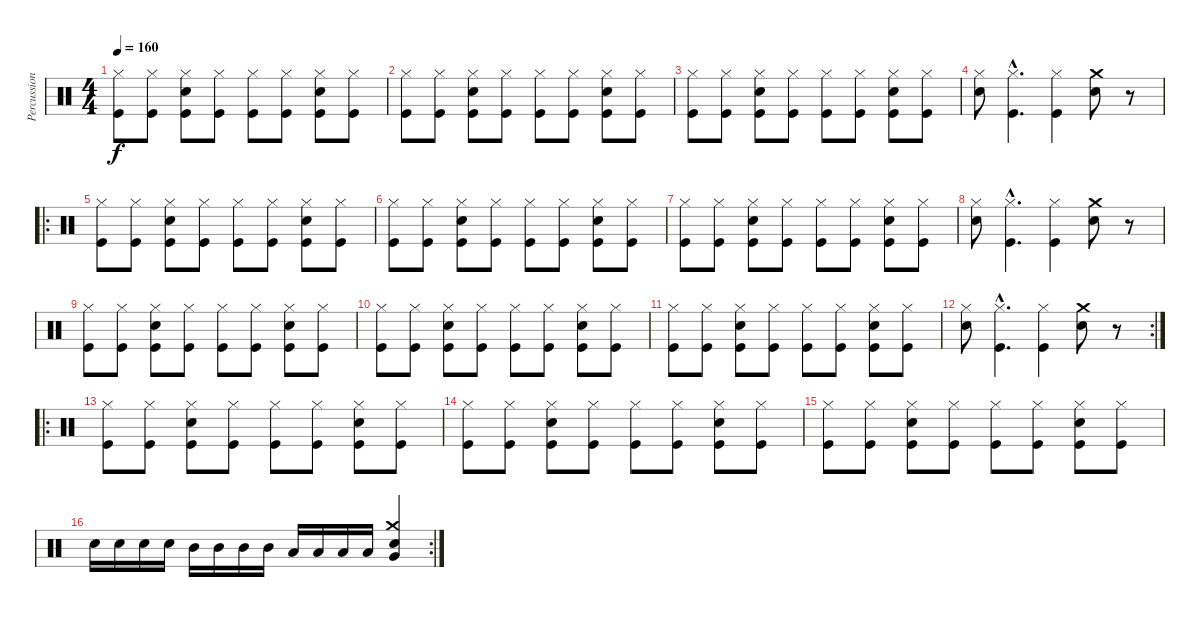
\track ("Percussion" "Percussion") {instrument percussion}
\staff {score}
\articulation defaults
\ts (4 4)
\tempo 160
\clef neutral
\ks c
("Hi-Hat (closed)" "Kick (hit)").8{dy f} ("Hi-Hat (closed)" "Kick (hit)").8 ("Hi-Hat (closed)" "Snare (hit) 2" "Kick (hit)").8 ("Hi-Hat (closed)" "Kick (hit)").8 ("Hi-Hat (closed)" "Kick (hit)").8 ("Hi-Hat (closed)" "Kick (hit)").8 ("Hi-Hat (closed)" "Snare (hit) 2" "Kick (hit)").8 ("Hi-Hat (closed)" "Kick (hit)").8 |
("Hi-Hat (closed)" "Kick (hit)").8 ("Hi-Hat (closed)" "Kick (hit)").8 ("Hi-Hat (closed)" "Snare (hit) 2" "Kick (hit)").8 ("Hi-Hat (closed)" "Kick (hit)").8 ("Hi-Hat (closed)" "Kick (hit)").8 ("Hi-Hat (closed)" "Kick (hit)").8 ("Hi-Hat (closed)" "Snare (hit) 2" "Kick (hit)").8 ("Hi-Hat (closed)" "Kick (hit)").8 |
("Hi-Hat (closed)" "Kick (hit)").8 ("Hi-Hat (closed)" "Kick (hit)").8 ("Hi-Hat (closed)" "Snare (hit) 2" "Kick (hit)").8 ("Hi-Hat (closed)" "Kick (hit)").8 ("Hi-Hat (closed)" "Kick (hit)").8 ("Hi-Hat (closed)" "Kick (hit)").8 ("Hi-Hat (closed)" "Snare (hit) 2" "Kick (hit)").8 ("Hi-Hat (closed)" "Kick (hit)").8 |
("Hi-Hat (closed)" "Snare (hit) 2").8 ("Hi-Hat (closed)"{hac} "Kick (hit)"{hac}).4{d} ("Hi-Hat (closed)" "Kick (hit)").4 ("Crash medium (hit)" "Snare (hit) 2").8 r.8 |
\ro
("Hi-Hat (closed)" "Kick (hit)").8 ("Hi-Hat (closed)" "Kick (hit)").8 ("Hi-Hat (closed)" "Snare (hit) 2" "Kick (hit)").8 ("Hi-Hat (closed)" "Kick (hit)").8 ("Hi-Hat (closed)" "Kick (hit)").8 ("Hi-Hat (closed)" "Kick (hit)").8 ("Hi-Hat (closed)" "Snare (hit) 2" "Kick (hit)").8 ("Hi-Hat (closed)" "Kick (hit)").8 |
("Hi-Hat (closed)" "Kick (hit)").8 ("Hi-Hat (closed)" "Kick (hit)").8 ("Hi-Hat (closed)" "Snare (hit) 2" "Kick (hit)").8 ("Hi-Hat (closed)" "Kick (hit)").8 ("Hi-Hat (closed)" "Kick (hit)").8 ("Hi-Hat (closed)" "Kick (hit)").8 ("Hi-Hat (closed)" "Snare (hit) 2" "Kick (hit)").8 ("Hi-Hat (closed)" "Kick (hit)").8 |
("Hi-Hat (closed)" "Kick (hit)").8 ("Hi-Hat (closed)" "Kick (hit)").8 ("Hi-Hat (closed)" "Snare (hit) 2" "Kick (hit)").8 ("Hi-Hat (closed)" "Kick (hit)").8 ("Hi-Hat (closed)" "Kick (hit)").8 ("Hi-Hat (closed)" "Kick (hit)").8 ("Hi-Hat (closed)" "Snare (hit) 2" "Kick (hit)").8 ("Hi-Hat (closed)" "Kick (hit)").8 |
("Hi-Hat (closed)" "Snare (hit) 2").8 ("Hi-Hat (closed)"{hac} "Kick (hit)"{hac}).4{d} ("Hi-Hat (closed)" "Kick (hit)").4 ("Crash medium (hit)" "Snare (hit) 2").8 r.8 |
("Hi-Hat (closed)" "Kick (hit)").8 ("Hi-Hat (closed)" "Kick (hit)").8 ("Hi-Hat (closed)" "Snare (hit) 2" "Kick (hit)").8 ("Hi-Hat (closed)" "Kick (hit)").8 ("Hi-Hat (closed)" "Kick (hit)").8 ("Hi-Hat (closed)" "Kick (hit)").8 ("Hi-Hat (closed)" "Snare (hit) 2" "Kick (hit)").8 ("Hi-Hat (closed)" "Kick (hit)").8 |
("Hi-Hat (closed)" "Kick (hit)").8 ("Hi-Hat (closed)" "Kick (hit)").8 ("Hi-Hat (closed)" "Snare (hit) 2" "Kick (hit)").8 ("Hi-Hat (closed)" "Kick (hit)").8 ("Hi-Hat (closed)" "Kick (hit)").8 ("Hi-Hat (closed)" "Kick (hit)").8 ("Hi-Hat (closed)" "Snare (hit) 2" "Kick (hit)").8 ("Hi-Hat (closed)" "Kick (hit)").8 |
("Hi-Hat (closed)" "Kick (hit)").8 ("Hi-Hat (closed)" "Kick (hit)").8 ("Hi-Hat (closed)" "Snare (hit) 2" "Kick (hit)").8 ("Hi-Hat (closed)" "Kick (hit)").8 ("Hi-Hat (closed)" "Kick (hit)").8 ("Hi-Hat (closed)" "Kick (hit)").8 ("Hi-Hat (closed)" "Snare (hit) 2" "Kick (hit)").8 ("Hi-Hat (closed)" "Kick (hit)").8 |
\rc 2
("Hi-Hat (closed)" "Snare (hit) 2").8 ("Hi-Hat (closed)"{hac} "Kick (hit)"{hac}).4{d} ("Hi-Hat (closed)" "Kick (hit)").4 ("Crash medium (hit)" "Snare (hit) 2").8 r.8 |
\ro
("Hi-Hat (closed)" "Kick (hit)").8 ("Hi-Hat (closed)" "Kick (hit)").8 ("Hi-Hat (closed)" "Snare (hit) 2" "Kick (hit)").8 ("Hi-Hat (closed)" "Kick (hit)").8 ("Hi-Hat (closed)" "Kick (hit)").8 ("Hi-Hat (closed)" "Kick (hit)").8 ("Hi-Hat (closed)" "Snare (hit) 2" "Kick (hit)").8 ("Hi-Hat (closed)" "Kick (hit)").8 |
("Hi-Hat (closed)" "Kick (hit)").8 ("Hi-Hat (closed)" "Kick (hit)").8 ("Hi-Hat (closed)" "Snare (hit) 2" "Kick (hit)").8 ("Hi-Hat (closed)" "Kick (hit)").8 ("Hi-Hat (closed)" "Kick (hit)").8 ("Hi-Hat (closed)" "Kick (hit)").8 ("Hi-Hat (closed)" "Snare (hit) 2" "Kick (hit)").8 ("Hi-Hat (closed)" "Kick (hit)").8 |
("Hi-Hat (closed)" "Kick (hit)").8 ("Hi-Hat (closed)" "Kick (hit)").8 ("Hi-Hat (closed)" "Snare (hit) 2" "Kick (hit)").8 ("Hi-Hat (closed)" "Kick (hit)").8 ("Hi-Hat (closed)" "Kick (hit)").8 ("Hi-Hat (closed)" "Kick (hit)").8 ("Hi-Hat (closed)" "Snare (hit) 2" "Kick (hit)").8 ("Hi-Hat (closed)" "Kick (hit)").8 |
\rc 2 "Snare (hit) 2".16 "Snare (hit) 2".16 "Snare (hit) 2".16 "Snare (hit) 2".16 "Mid Tom (hit)".16 "Mid Tom (hit)".16 "Mid Tom (hit)".16 "Mid Tom (hit)".16 "Low Tom (hit)".16 "Low Tom (hit)".16 "Low Tom (hit)".16 "Low Tom (hit)".16
("Very Low Tom (hit)" "Snare (hit) 2" "Crash medium (hit)").4
